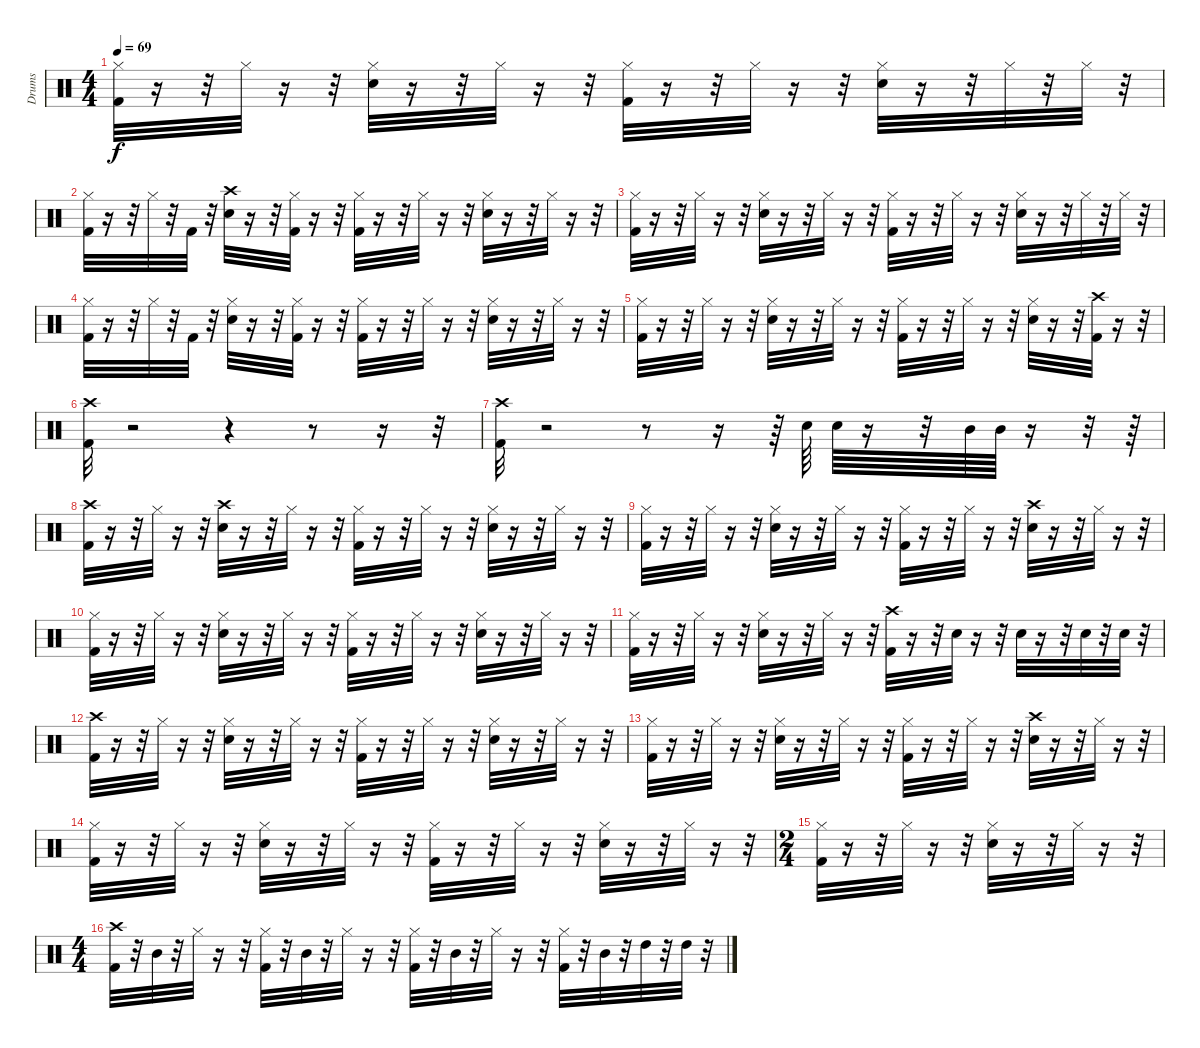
\track ("Drums" "Drums") {instrument percussion}
\staff {score}
\articulation defaults
\ts (4 4)
\tempo 69
\clef neutral
\ks c
("Hi-Hat (closed)" "Kick (hit) 2").32{dy f} r.16 r.32 "Hi-Hat (closed)".32 r.16 r.32 ("Snare (hit) 2" "Hi-Hat (closed)").32 r.16 r.32 "Hi-Hat (closed)".32 r.16 r.32 ("Kick (hit) 2" "Hi-Hat (closed)").32 r.16 r.32 "Hi-Hat (closed)".32 r.16 r.32 ("Hi-Hat (closed)" "Snare (hit) 2").32 r.16 r.32 "Hi-Hat (closed)".32 r.32 "Hi-Hat (closed)".32 r.32 |
("Hi-Hat (closed)" "Kick (hit) 2").32 r.16 r.32 "Hi-Hat (closed)".32 r.32 "Kick (hit) 2".32 r.32 ("Crash high (hit)" "Snare (hit) 2").32 r.16 r.32 ("Hi-Hat (closed)" "Kick (hit) 2").32 r.16 r.32 ("Hi-Hat (closed)" "Kick (hit) 2").32 r.16 r.32 "Hi-Hat (closed)".32 r.16 r.32 ("Snare (hit) 2" "Hi-Hat (closed)").32 r.16 r.32 "Hi-Hat (closed)".32 r.16 r.32 |
("Hi-Hat (closed)" "Kick (hit) 2").32 r.16 r.32 "Hi-Hat (closed)".32 r.16 r.32 ("Snare (hit) 2" "Hi-Hat (closed)").32 r.16 r.32 "Hi-Hat (closed)".32 r.16 r.32 ("Kick (hit) 2" "Hi-Hat (closed)").32 r.16 r.32 "Hi-Hat (closed)".32 r.16 r.32 ("Hi-Hat (closed)" "Snare (hit) 2").32 r.16 r.32 "Hi-Hat (closed)".32 r.32 "Hi-Hat (closed)".32 r.32 |
("Hi-Hat (closed)" "Kick (hit) 2").32 r.16 r.32 "Hi-Hat (closed)".32 r.32 "Kick (hit) 2".32 r.32 ("Snare (hit) 2" "Hi-Hat (closed)").32 r.16 r.32 ("Kick (hit) 2" "Hi-Hat (closed)").32 r.16 r.32 ("Hi-Hat (closed)" "Kick (hit) 2").32 r.16 r.32 "Hi-Hat (closed)".32 r.16 r.32 ("Snare (hit) 2" "Hi-Hat (closed)").32 r.16 r.32 "Hi-Hat (closed)".32 r.16 r.32 |
("Hi-Hat (closed)" "Kick (hit) 2").32 r.16 r.32 "Hi-Hat (closed)".32 r.16 r.32 ("Snare (hit) 2" "Hi-Hat (closed)").32 r.16 r.32 "Hi-Hat (closed)".32 r.16 r.32 ("Hi-Hat (closed)" "Kick (hit) 2").32 r.16 r.32 "Hi-Hat (closed)".32 r.16 r.32 ("Snare (hit) 2" "Hi-Hat (closed)").32 r.16 r.32 ("Crash high (hit)" "Kick (hit) 2").32 r.16 r.32 |
("Kick (hit) 2" "Crash high (hit)").32 r.2 r.4 r.8 r.16 r.32 |
("Kick (hit) 2" "Crash high (hit)").32 r.2 r.8 r.16 r.64 "Snare (hit) 2".64 "Snare (hit) 2".64 r.16 r.32 "Mid Tom (hit)".64 "Mid Tom (hit)".64 r.16 r.32 r.64 |
("Kick (hit) 2" "Crash high (hit)").32 r.16 r.32 "Hi-Hat (closed)".32 r.16 r.32 ("Crash high (hit)" "Snare (hit) 2").32 r.16 r.32 "Hi-Hat (closed)".32 r.16 r.32 ("Hi-Hat (closed)" "Kick (hit) 2").32 r.16 r.32 "Hi-Hat (closed)".32 r.16 r.32 ("Snare (hit) 2" "Hi-Hat (closed)").32 r.16 r.32 "Hi-Hat (closed)".32 r.16 r.32 |
("Kick (hit) 2" "Hi-Hat (closed)").32 r.16 r.32 "Hi-Hat (closed)".32 r.16 r.32 ("Snare (hit) 2" "Hi-Hat (closed)").32 r.16 r.32 "Hi-Hat (closed)".32 r.16 r.32 ("Hi-Hat (closed)" "Kick (hit) 2").32 r.16 r.32 "Hi-Hat (closed)".32 r.16 r.32 ("Crash high (hit)" "Snare (hit) 2").32 r.16 r.32 "Hi-Hat (closed)".32 r.16 r.32 |
("Hi-Hat (closed)" "Kick (hit) 2").32 r.16 r.32 "Hi-Hat (closed)".32 r.16 r.32 ("Snare (hit) 2" "Hi-Hat (closed)").32 r.16 r.32 "Hi-Hat (closed)".32 r.16 r.32 ("Hi-Hat (closed)" "Kick (hit) 2").32 r.16 r.32 "Hi-Hat (closed)".32 r.16 r.32 ("Snare (hit) 2" "Hi-Hat (closed)").32 r.16 r.32 "Hi-Hat (closed)".32 r.16 r.32 |
("Kick (hit) 2" "Hi-Hat (closed)").32 r.16 r.32 "Hi-Hat (closed)".32 r.16 r.32 ("Snare (hit) 2" "Hi-Hat (closed)").32 r.16 r.32 "Hi-Hat (closed)".32 r.16 r.32 ("Crash high (hit)" "Kick (hit) 2").32 r.16 r.32 "Snare (hit) 2".32 r.16 r.32 "Snare (hit) 2".32 r.16 r.32 "Snare (hit) 2".32 r.32 "Snare (hit) 2".32 r.32 |
("Kick (hit) 2" "Crash high (hit)").32 r.16 r.32 "Hi-Hat (closed)".32 r.16 r.32 ("Snare (hit) 2" "Hi-Hat (closed)").32 r.16 r.32 "Hi-Hat (closed)".32 r.16 r.32 ("Hi-Hat (closed)" "Kick (hit) 2").32 r.16 r.32 "Hi-Hat (closed)".32 r.16 r.32 ("Snare (hit) 2" "Hi-Hat (closed)").32 r.16 r.32 "Hi-Hat (closed)".32 r.16 r.32 |
("Kick (hit) 2" "Hi-Hat (closed)").32 r.16 r.32 "Hi-Hat (closed)".32 r.16 r.32 ("Snare (hit) 2" "Hi-Hat (closed)").32 r.16 r.32 "Hi-Hat (closed)".32 r.16 r.32 ("Hi-Hat (closed)" "Kick (hit) 2").32 r.16 r.32 "Hi-Hat (closed)".32 r.16 r.32 ("Crash high (hit)" "Snare (hit) 2").32 r.16 r.32 "Hi-Hat (closed)".32 r.16 r.32 |
("Kick (hit) 2" "Hi-Hat (closed)").32 r.16 r.32 "Hi-Hat (closed)".32 r.16 r.32 ("Snare (hit) 2" "Hi-Hat (closed)").32 r.16 r.32 "Hi-Hat (closed)".32 r.16 r.32 ("Kick (hit) 2" "Hi-Hat (closed)").32 r.16 r.32 "Hi-Hat (closed)".32 r.16 r.32 ("Snare (hit) 2" "Hi-Hat (closed)").32 r.16 r.32 "Hi-Hat (closed)".32 r.16 r.32 |
\ts (2 4)
("Kick (hit) 2" "Hi-Hat (closed)").32 r.16 r.32 "Hi-Hat (closed)".32 r.16 r.32 ("Snare (hit) 2" "Hi-Hat (closed)").32 r.16 r.32 "Hi-Hat (closed)".32 r.16 r.32 |
\ts (4 4)
("Kick (hit) 2" "Crash high (hit)").32 r.32 "Mid Tom (hit)".32 r.32 "Hi-Hat (closed)".32 r.16 r.32 ("Hi-Hat (closed)" "Kick (hit) 2").32 r.32 "Mid Tom (hit)".32 r.32 "Hi-Hat (closed)".32 r.16 r.32 ("Hi-Hat (closed)" "Kick (hit) 2").32 r.32 "Mid Tom (hit)".32 r.32 "Hi-Hat (closed)".32 r.16 r.32 ("Hi-Hat (closed)" "Kick (hit) 2").32 r.32 "Mid Tom (hit)".32 r.32 "High Tom (hit)".32 r.32 "High Tom (hit)".32 r.32
